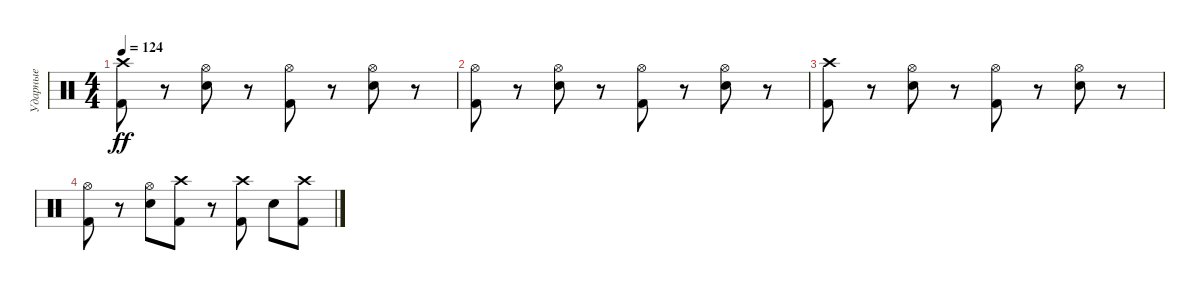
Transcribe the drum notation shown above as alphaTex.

\track ("Ударные" "Ударные") {instrument percussion}
\staff {score}
\articulation defaults
\ts (4 4)
\tempo 124
\clef neutral
\ks c
("Crash high (hit)" "Kick (hit) 2").8{dy ff} r.8 ("Hi-Hat (open)" "Electric Snare (hit)").8 r.8 ("Hi-Hat (open)" "Kick (hit) 2").8 r.8 ("Hi-Hat (open)" "Electric Snare (hit)").8 r.8 |
("Hi-Hat (open)" "Kick (hit) 2").8 r.8 ("Hi-Hat (open)" "Electric Snare (hit)").8 r.8 ("Hi-Hat (open)" "Kick (hit) 2").8 r.8 ("Hi-Hat (open)" "Electric Snare (hit)").8 r.8 |
("Crash high (hit)" "Kick (hit) 2").8 r.8 ("Hi-Hat (open)" "Electric Snare (hit)").8 r.8 ("Hi-Hat (open)" "Kick (hit) 2").8 r.8 ("Hi-Hat (open)" "Electric Snare (hit)").8 r.8 |
("Hi-Hat (open)" "Kick (hit) 2").8 r.8 ("Hi-Hat (open)" "Electric Snare (hit)").8 ("Crash high (hit)" "Kick (hit) 2").8 r.8 ("Crash high (hit)" "Kick (hit) 2").8 "Electric Snare (hit)".8 ("Crash high (hit)" "Kick (hit) 2").8
